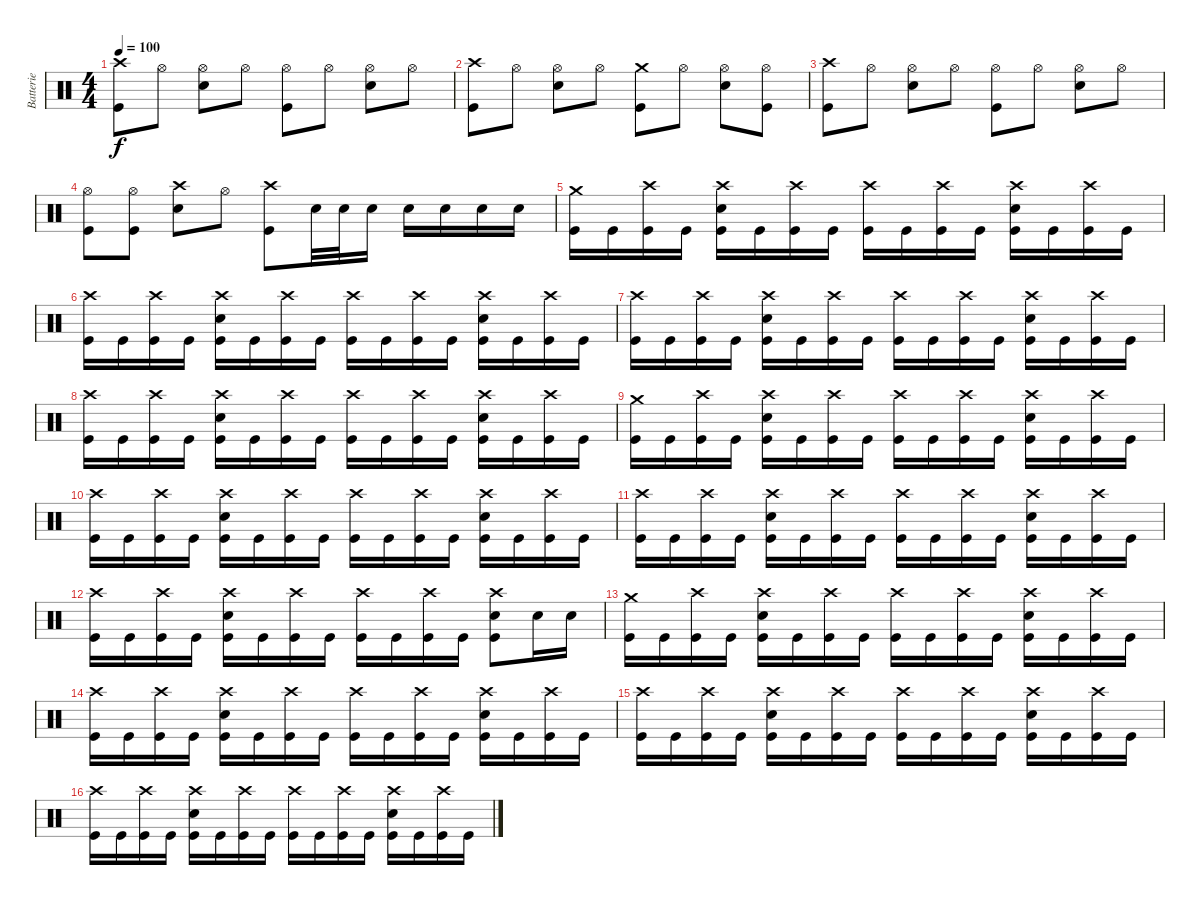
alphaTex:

\track ("Batterie" "Batterie") {instrument percussion}
\staff {score}
\articulation defaults
\ts (4 4)
\tempo 100
\clef neutral
\ks c
("Crash high (hit)" "Kick (hit)").8{dy f} "Hi-Hat (open)".8 ("Hi-Hat (open)" "Electric Snare (hit)").8 "Hi-Hat (open)".8 ("Hi-Hat (open)" "Kick (hit)").8 "Hi-Hat (open)".8 ("Hi-Hat (open)" "Electric Snare (hit)").8 "Hi-Hat (open)".8 |
("Crash high (hit)" "Kick (hit)").8 "Hi-Hat (open)".8 ("Hi-Hat (open)" "Electric Snare (hit)").8 "Hi-Hat (open)".8 ("Crash medium (hit)" "Kick (hit)").8 "Hi-Hat (open)".8 ("Hi-Hat (open)" "Electric Snare (hit)").8 ("Hi-Hat (open)" "Kick (hit)").8 |
("Crash high (hit)" "Kick (hit)").8 "Hi-Hat (open)".8 ("Hi-Hat (open)" "Electric Snare (hit)").8 "Hi-Hat (open)".8 ("Hi-Hat (open)" "Kick (hit)").8 "Hi-Hat (open)".8 ("Hi-Hat (open)" "Electric Snare (hit)").8 "Hi-Hat (open)".8 |
("Hi-Hat (open)" "Kick (hit)").8 ("Hi-Hat (open)" "Kick (hit)").8 ("Crash high (hit)" "Electric Snare (hit)").8 "Hi-Hat (open)".8 ("Crash high (hit)" "Kick (hit)").8 "Electric Snare (hit)".32 "Electric Snare (hit)".32 "Electric Snare (hit)".16 "Electric Snare (hit)".16 "Electric Snare (hit)".16 "Electric Snare (hit)".16 "Electric Snare (hit)".16 |
("Crash medium (hit)" "Kick (hit)").16 "Kick (hit)".16 ("Crash high (hit)" "Kick (hit)").16 "Kick (hit)".16 ("Crash high (hit)" "Electric Snare (hit)" "Kick (hit)").16 "Kick (hit)".16 ("Crash high (hit)" "Kick (hit)").16 "Kick (hit)".16 ("Crash high (hit)" "Kick (hit)").16 "Kick (hit)".16 ("Crash high (hit)" "Kick (hit)").16 "Kick (hit)".16 ("Crash high (hit)" "Electric Snare (hit)" "Kick (hit)").16 "Kick (hit)".16 ("Crash high (hit)" "Kick (hit)").16 "Kick (hit)".16 |
("Crash high (hit)" "Kick (hit)").16 "Kick (hit)".16 ("Crash high (hit)" "Kick (hit)").16 "Kick (hit)".16 ("Crash high (hit)" "Electric Snare (hit)" "Kick (hit)").16 "Kick (hit)".16 ("Crash high (hit)" "Kick (hit)").16 "Kick (hit)".16 ("Crash high (hit)" "Kick (hit)").16 "Kick (hit)".16 ("Crash high (hit)" "Kick (hit)").16 "Kick (hit)".16 ("Crash high (hit)" "Electric Snare (hit)" "Kick (hit)").16 "Kick (hit)".16 ("Crash high (hit)" "Kick (hit)").16 "Kick (hit)".16 |
("Crash high (hit)" "Kick (hit)").16 "Kick (hit)".16 ("Crash high (hit)" "Kick (hit)").16 "Kick (hit)".16 ("Crash high (hit)" "Electric Snare (hit)" "Kick (hit)").16 "Kick (hit)".16 ("Crash high (hit)" "Kick (hit)").16 "Kick (hit)".16 ("Crash high (hit)" "Kick (hit)").16 "Kick (hit)".16 ("Crash high (hit)" "Kick (hit)").16 "Kick (hit)".16 ("Crash high (hit)" "Electric Snare (hit)" "Kick (hit)").16 "Kick (hit)".16 ("Crash high (hit)" "Kick (hit)").16 "Kick (hit)".16 |
("Crash high (hit)" "Kick (hit)").16 "Kick (hit)".16 ("Crash high (hit)" "Kick (hit)").16 "Kick (hit)".16 ("Crash high (hit)" "Electric Snare (hit)" "Kick (hit)").16 "Kick (hit)".16 ("Crash high (hit)" "Kick (hit)").16 "Kick (hit)".16 ("Crash high (hit)" "Kick (hit)").16 "Kick (hit)".16 ("Crash high (hit)" "Kick (hit)").16 "Kick (hit)".16 ("Crash high (hit)" "Electric Snare (hit)" "Kick (hit)").16 "Kick (hit)".16 ("Crash high (hit)" "Kick (hit)").16 "Kick (hit)".16 |
("Crash medium (hit)" "Kick (hit)").16 "Kick (hit)".16 ("Crash high (hit)" "Kick (hit)").16 "Kick (hit)".16 ("Crash high (hit)" "Electric Snare (hit)" "Kick (hit)").16 "Kick (hit)".16 ("Crash high (hit)" "Kick (hit)").16 "Kick (hit)".16 ("Crash high (hit)" "Kick (hit)").16 "Kick (hit)".16 ("Crash high (hit)" "Kick (hit)").16 "Kick (hit)".16 ("Crash high (hit)" "Electric Snare (hit)" "Kick (hit)").16 "Kick (hit)".16 ("Crash high (hit)" "Kick (hit)").16 "Kick (hit)".16 |
("Crash high (hit)" "Kick (hit)").16 "Kick (hit)".16 ("Crash high (hit)" "Kick (hit)").16 "Kick (hit)".16 ("Crash high (hit)" "Electric Snare (hit)" "Kick (hit)").16 "Kick (hit)".16 ("Crash high (hit)" "Kick (hit)").16 "Kick (hit)".16 ("Crash high (hit)" "Kick (hit)").16 "Kick (hit)".16 ("Crash high (hit)" "Kick (hit)").16 "Kick (hit)".16 ("Crash high (hit)" "Electric Snare (hit)" "Kick (hit)").16 "Kick (hit)".16 ("Crash high (hit)" "Kick (hit)").16 "Kick (hit)".16 |
("Crash high (hit)" "Kick (hit)").16 "Kick (hit)".16 ("Crash high (hit)" "Kick (hit)").16 "Kick (hit)".16 ("Crash high (hit)" "Electric Snare (hit)" "Kick (hit)").16 "Kick (hit)".16 ("Crash high (hit)" "Kick (hit)").16 "Kick (hit)".16 ("Crash high (hit)" "Kick (hit)").16 "Kick (hit)".16 ("Crash high (hit)" "Kick (hit)").16 "Kick (hit)".16 ("Crash high (hit)" "Electric Snare (hit)" "Kick (hit)").16 "Kick (hit)".16 ("Crash high (hit)" "Kick (hit)").16 "Kick (hit)".16 |
("Crash high (hit)" "Kick (hit)").16 "Kick (hit)".16 ("Crash high (hit)" "Kick (hit)").16 "Kick (hit)".16 ("Crash high (hit)" "Electric Snare (hit)" "Kick (hit)").16 "Kick (hit)".16 ("Crash high (hit)" "Kick (hit)").16 "Kick (hit)".16 ("Crash high (hit)" "Kick (hit)").16 "Kick (hit)".16 ("Crash high (hit)" "Kick (hit)").16 "Kick (hit)".16 ("Crash high (hit)" "Electric Snare (hit)" "Kick (hit)").8 "Electric Snare (hit)".16 "Electric Snare (hit)".16 |
("Crash medium (hit)" "Kick (hit)").16 "Kick (hit)".16 ("Crash high (hit)" "Kick (hit)").16 "Kick (hit)".16 ("Crash high (hit)" "Electric Snare (hit)" "Kick (hit)").16 "Kick (hit)".16 ("Crash high (hit)" "Kick (hit)").16 "Kick (hit)".16 ("Crash high (hit)" "Kick (hit)").16 "Kick (hit)".16 ("Crash high (hit)" "Kick (hit)").16 "Kick (hit)".16 ("Crash high (hit)" "Electric Snare (hit)" "Kick (hit)").16 "Kick (hit)".16 ("Crash high (hit)" "Kick (hit)").16 "Kick (hit)".16 |
("Crash high (hit)" "Kick (hit)").16 "Kick (hit)".16 ("Crash high (hit)" "Kick (hit)").16 "Kick (hit)".16 ("Crash high (hit)" "Electric Snare (hit)" "Kick (hit)").16 "Kick (hit)".16 ("Crash high (hit)" "Kick (hit)").16 "Kick (hit)".16 ("Crash high (hit)" "Kick (hit)").16 "Kick (hit)".16 ("Crash high (hit)" "Kick (hit)").16 "Kick (hit)".16 ("Crash high (hit)" "Electric Snare (hit)" "Kick (hit)").16 "Kick (hit)".16 ("Crash high (hit)" "Kick (hit)").16 "Kick (hit)".16 |
("Crash high (hit)" "Kick (hit)").16 "Kick (hit)".16 ("Crash high (hit)" "Kick (hit)").16 "Kick (hit)".16 ("Crash high (hit)" "Electric Snare (hit)" "Kick (hit)").16 "Kick (hit)".16 ("Crash high (hit)" "Kick (hit)").16 "Kick (hit)".16 ("Crash high (hit)" "Kick (hit)").16 "Kick (hit)".16 ("Crash high (hit)" "Kick (hit)").16 "Kick (hit)".16 ("Crash high (hit)" "Electric Snare (hit)" "Kick (hit)").16 "Kick (hit)".16 ("Crash high (hit)" "Kick (hit)").16 "Kick (hit)".16 |
("Crash high (hit)" "Kick (hit)").16 "Kick (hit)".16 ("Crash high (hit)" "Kick (hit)").16 "Kick (hit)".16 ("Crash high (hit)" "Electric Snare (hit)" "Kick (hit)").16 "Kick (hit)".16 ("Crash high (hit)" "Kick (hit)").16 "Kick (hit)".16 ("Crash high (hit)" "Kick (hit)").16 "Kick (hit)".16 ("Crash high (hit)" "Kick (hit)").16 "Kick (hit)".16 ("Crash high (hit)" "Electric Snare (hit)" "Kick (hit)").16 "Kick (hit)".16 ("Crash high (hit)" "Kick (hit)").16 "Kick (hit)".16
